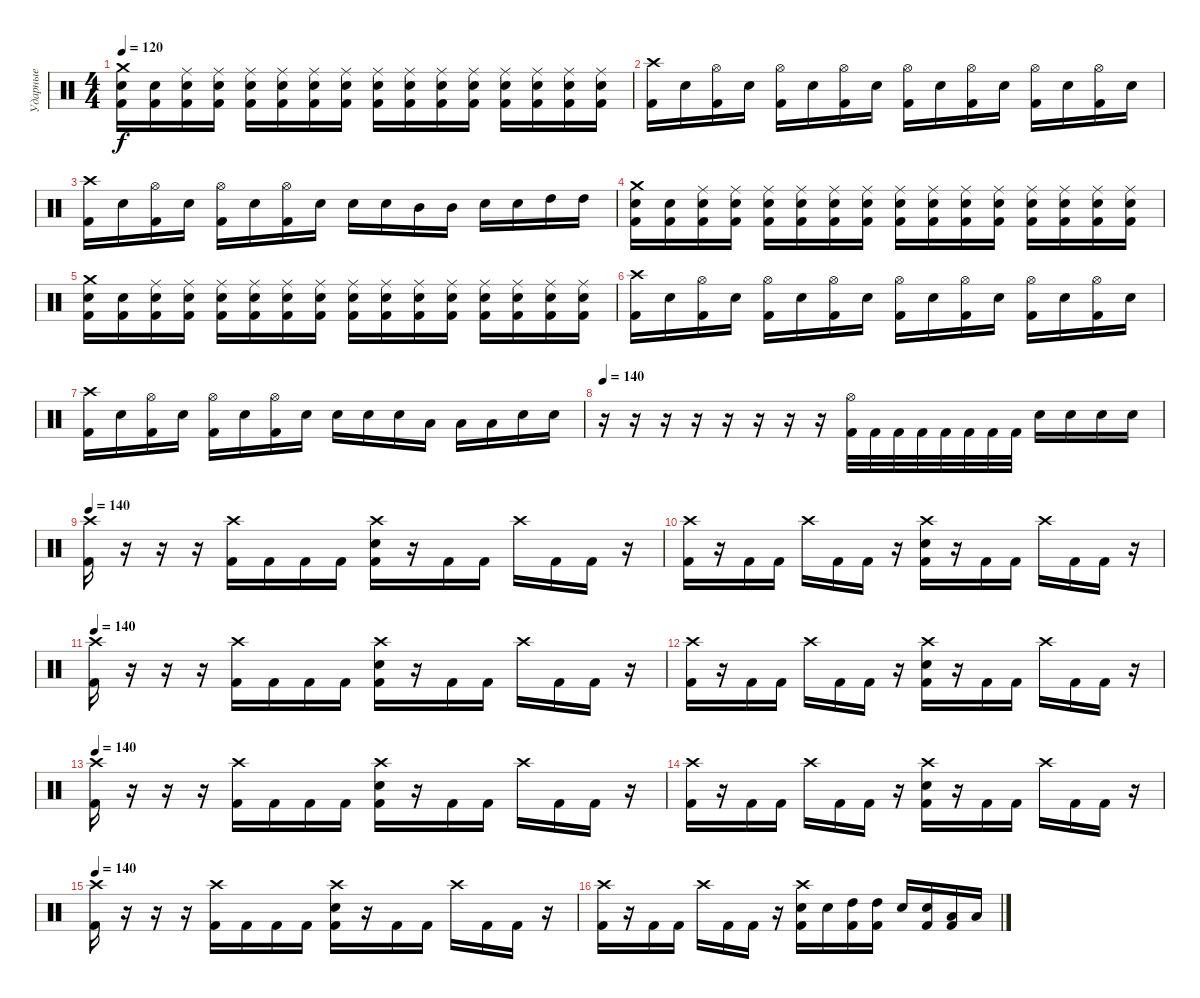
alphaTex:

\track ("Ударные" "Ударные") {instrument percussion}
\staff {score}
\articulation defaults
\ts (4 4)
\tempo 120
\clef neutral
\ks c
("Crash medium (hit)" "Electric Snare (hit)" "Kick (hit) 2").16{dy f} ("Electric Snare (hit)" "Kick (hit) 2").16 ("Ride (middle)" "Electric Snare (hit)" "Kick (hit) 2").16 ("Ride (middle)" "Electric Snare (hit)" "Kick (hit) 2").16 ("Ride (middle)" "Electric Snare (hit)" "Kick (hit) 2").16 ("Ride (middle)" "Electric Snare (hit)" "Kick (hit) 2").16 ("Ride (middle)" "Electric Snare (hit)" "Kick (hit) 2").16 ("Ride (middle)" "Electric Snare (hit)" "Kick (hit) 2").16 ("Ride (middle)" "Electric Snare (hit)" "Kick (hit) 2").16 ("Ride (middle)" "Electric Snare (hit)" "Kick (hit) 2").16 ("Ride (middle)" "Electric Snare (hit)" "Kick (hit) 2").16 ("Ride (middle)" "Electric Snare (hit)" "Kick (hit) 2").16 ("Ride (middle)" "Electric Snare (hit)" "Kick (hit) 2").16 ("Ride (middle)" "Electric Snare (hit)" "Kick (hit) 2").16 ("Ride (middle)" "Electric Snare (hit)" "Kick (hit) 2").16 ("Ride (middle)" "Electric Snare (hit)" "Kick (hit) 2").16 |
("Crash high (hit)" "Kick (hit) 2").16 "Electric Snare (hit)".16 ("Hi-Hat (open)" "Kick (hit) 2").16 "Electric Snare (hit)".16 ("Hi-Hat (open)" "Kick (hit) 2").16 "Electric Snare (hit)".16 ("Hi-Hat (open)" "Kick (hit) 2").16 "Electric Snare (hit)".16 ("Hi-Hat (open)" "Kick (hit) 2").16 "Electric Snare (hit)".16 ("Hi-Hat (open)" "Kick (hit) 2").16 "Electric Snare (hit)".16 ("Hi-Hat (open)" "Kick (hit) 2").16 "Electric Snare (hit)".16 ("Hi-Hat (open)" "Kick (hit) 2").16 "Electric Snare (hit)".16 |
("Crash high (hit)" "Kick (hit) 2").16 "Electric Snare (hit)".16 ("Hi-Hat (open)" "Kick (hit) 2").16 "Electric Snare (hit)".16 ("Hi-Hat (open)" "Kick (hit) 2").16 "Electric Snare (hit)".16 ("Hi-Hat (open)" "Kick (hit) 2").16 "Electric Snare (hit)".16 "Electric Snare (hit)".16 "Electric Snare (hit)".16 "Mid Tom (hit)".16 "Mid Tom (hit)".16 "Electric Snare (hit)".16 "Electric Snare (hit)".16 "High Tom (hit)".16 "High Tom (hit)".16 |
("Crash medium (hit)" "Electric Snare (hit)" "Kick (hit) 2").16 ("Electric Snare (hit)" "Kick (hit) 2").16 ("Ride (middle)" "Electric Snare (hit)" "Kick (hit) 2").16 ("Ride (middle)" "Electric Snare (hit)" "Kick (hit) 2").16 ("Ride (middle)" "Electric Snare (hit)" "Kick (hit) 2").16 ("Ride (middle)" "Electric Snare (hit)" "Kick (hit) 2").16 ("Ride (middle)" "Electric Snare (hit)" "Kick (hit) 2").16 ("Ride (middle)" "Electric Snare (hit)" "Kick (hit) 2").16 ("Ride (middle)" "Electric Snare (hit)" "Kick (hit) 2").16 ("Ride (middle)" "Electric Snare (hit)" "Kick (hit) 2").16 ("Ride (middle)" "Electric Snare (hit)" "Kick (hit) 2").16 ("Ride (middle)" "Electric Snare (hit)" "Kick (hit) 2").16 ("Ride (middle)" "Electric Snare (hit)" "Kick (hit) 2").16 ("Ride (middle)" "Electric Snare (hit)" "Kick (hit) 2").16 ("Ride (middle)" "Electric Snare (hit)" "Kick (hit) 2").16 ("Ride (middle)" "Electric Snare (hit)" "Kick (hit) 2").16 |
("Crash medium (hit)" "Electric Snare (hit)" "Kick (hit) 2").16 ("Electric Snare (hit)" "Kick (hit) 2").16 ("Ride (middle)" "Electric Snare (hit)" "Kick (hit) 2").16 ("Ride (middle)" "Electric Snare (hit)" "Kick (hit) 2").16 ("Ride (middle)" "Electric Snare (hit)" "Kick (hit) 2").16 ("Ride (middle)" "Electric Snare (hit)" "Kick (hit) 2").16 ("Ride (middle)" "Electric Snare (hit)" "Kick (hit) 2").16 ("Ride (middle)" "Electric Snare (hit)" "Kick (hit) 2").16 ("Ride (middle)" "Electric Snare (hit)" "Kick (hit) 2").16 ("Ride (middle)" "Electric Snare (hit)" "Kick (hit) 2").16 ("Ride (middle)" "Electric Snare (hit)" "Kick (hit) 2").16 ("Ride (middle)" "Electric Snare (hit)" "Kick (hit) 2").16 ("Ride (middle)" "Electric Snare (hit)" "Kick (hit) 2").16 ("Ride (middle)" "Electric Snare (hit)" "Kick (hit) 2").16 ("Ride (middle)" "Electric Snare (hit)" "Kick (hit) 2").16 ("Ride (middle)" "Electric Snare (hit)" "Kick (hit) 2").16 |
("Crash high (hit)" "Kick (hit) 2").16 "Electric Snare (hit)".16 ("Hi-Hat (open)" "Kick (hit) 2").16 "Electric Snare (hit)".16 ("Hi-Hat (open)" "Kick (hit) 2").16 "Electric Snare (hit)".16 ("Hi-Hat (open)" "Kick (hit) 2").16 "Electric Snare (hit)".16 ("Hi-Hat (open)" "Kick (hit) 2").16 "Electric Snare (hit)".16 ("Hi-Hat (open)" "Kick (hit) 2").16 "Electric Snare (hit)".16 ("Hi-Hat (open)" "Kick (hit) 2").16 "Electric Snare (hit)".16 ("Hi-Hat (open)" "Kick (hit) 2").16 "Electric Snare (hit)".16 |
("Crash high (hit)" "Kick (hit) 2").16 "Electric Snare (hit)".16 ("Hi-Hat (open)" "Kick (hit) 2").16 "Electric Snare (hit)".16 ("Hi-Hat (open)" "Kick (hit) 2").16 "Electric Snare (hit)".16 ("Hi-Hat (open)" "Kick (hit) 2").16 "Electric Snare (hit)".16 "Electric Snare (hit)".16 "Electric Snare (hit)".16 "Electric Snare (hit)".16 "Low Tom (hit)".16 "Low Tom (hit)".16 "Low Tom (hit)".16 "Electric Snare (hit)".16 "Electric Snare (hit)".16 |
\tempo 140
r.16 r.16 r.16 r.16 r.16 r.16 r.16 r.16 ("Hi-Hat (open)" "Kick (hit) 2").32 "Kick (hit) 2".32 "Kick (hit) 2".32 "Kick (hit) 2".32 "Kick (hit) 2".32 "Kick (hit) 2".32 "Kick (hit) 2".32 "Kick (hit) 2".32 "Electric Snare (hit)".16 "Electric Snare (hit)".16 "Electric Snare (hit)".16 "Electric Snare (hit)".16 |
\tempo 140
("Crash high (hit)" "Kick (hit) 2").16 r.16 r.16 r.16 ("Crash high (hit)" "Kick (hit) 2").16 "Kick (hit) 2".16 "Kick (hit) 2".16 "Kick (hit) 2".16 ("Crash high (hit)" "Electric Snare (hit)" "Kick (hit) 2").16 r.16 "Kick (hit) 2".16 "Kick (hit) 2".16 "Crash high (hit)".16 "Kick (hit) 2".16 "Kick (hit) 2".16 r.16 |
("Crash high (hit)" "Kick (hit) 2").16 r.16 "Kick (hit) 2".16 "Kick (hit) 2".16 "Crash high (hit)".16 "Kick (hit) 2".16 "Kick (hit) 2".16 r.16 ("Crash high (hit)" "Electric Snare (hit)" "Kick (hit) 2").16 r.16 "Kick (hit) 2".16 "Kick (hit) 2".16 "Crash high (hit)".16 "Kick (hit) 2".16 "Kick (hit) 2".16 r.16 |
\tempo 140
("Crash high (hit)" "Kick (hit) 2").16 r.16 r.16 r.16 ("Crash high (hit)" "Kick (hit) 2").16 "Kick (hit) 2".16 "Kick (hit) 2".16 "Kick (hit) 2".16 ("Crash high (hit)" "Electric Snare (hit)" "Kick (hit) 2").16 r.16 "Kick (hit) 2".16 "Kick (hit) 2".16 "Crash high (hit)".16 "Kick (hit) 2".16 "Kick (hit) 2".16 r.16 |
("Crash high (hit)" "Kick (hit) 2").16 r.16 "Kick (hit) 2".16 "Kick (hit) 2".16 "Crash high (hit)".16 "Kick (hit) 2".16 "Kick (hit) 2".16 r.16 ("Crash high (hit)" "Electric Snare (hit)" "Kick (hit) 2").16 r.16 "Kick (hit) 2".16 "Kick (hit) 2".16 "Crash high (hit)".16 "Kick (hit) 2".16 "Kick (hit) 2".16 r.16 |
\tempo 140
("Crash high (hit)" "Kick (hit) 2").16 r.16 r.16 r.16 ("Crash high (hit)" "Kick (hit) 2").16 "Kick (hit) 2".16 "Kick (hit) 2".16 "Kick (hit) 2".16 ("Crash high (hit)" "Electric Snare (hit)" "Kick (hit) 2").16 r.16 "Kick (hit) 2".16 "Kick (hit) 2".16 "Crash high (hit)".16 "Kick (hit) 2".16 "Kick (hit) 2".16 r.16 |
("Crash high (hit)" "Kick (hit) 2").16 r.16 "Kick (hit) 2".16 "Kick (hit) 2".16 "Crash high (hit)".16 "Kick (hit) 2".16 "Kick (hit) 2".16 r.16 ("Crash high (hit)" "Electric Snare (hit)" "Kick (hit) 2").16 r.16 "Kick (hit) 2".16 "Kick (hit) 2".16 "Crash high (hit)".16 "Kick (hit) 2".16 "Kick (hit) 2".16 r.16 |
\tempo 140
("Crash high (hit)" "Kick (hit) 2").16 r.16 r.16 r.16 ("Crash high (hit)" "Kick (hit) 2").16 "Kick (hit) 2".16 "Kick (hit) 2".16 "Kick (hit) 2".16 ("Crash high (hit)" "Electric Snare (hit)" "Kick (hit) 2").16 r.16 "Kick (hit) 2".16 "Kick (hit) 2".16 "Crash high (hit)".16 "Kick (hit) 2".16 "Kick (hit) 2".16 r.16 |
("Crash high (hit)" "Kick (hit) 2").16 r.16 "Kick (hit) 2".16 "Kick (hit) 2".16 "Crash high (hit)".16 "Kick (hit) 2".16 "Kick (hit) 2".16 r.16 ("Crash high (hit)" "Electric Snare (hit)" "Kick (hit) 2").16 "Electric Snare (hit)".16 ("High Tom (hit)" "Kick (hit) 2").16 ("High Tom (hit)" "Kick (hit) 2").16 "Electric Snare (hit)".16 ("Electric Snare (hit)" "Kick (hit) 2").16 ("Low Tom (hit)" "Kick (hit) 2").16 "Low Tom (hit)".16
